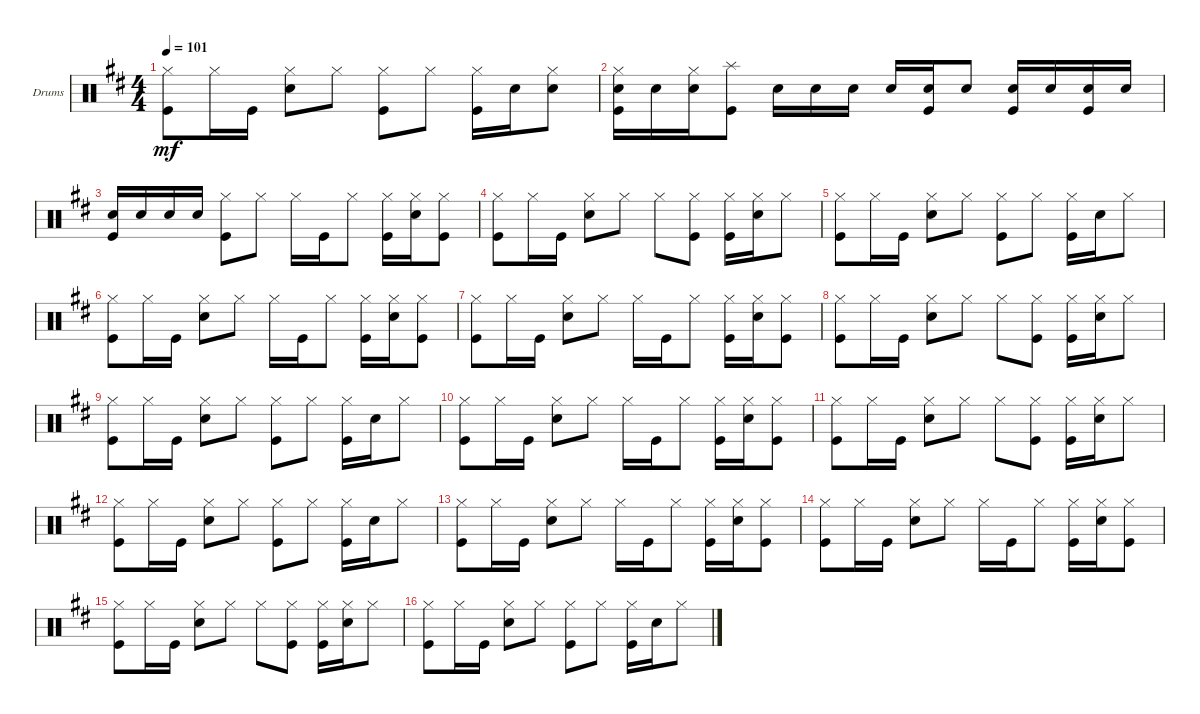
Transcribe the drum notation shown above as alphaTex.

\bracketExtendMode groupsimilarinstruments
\firstSystemTrackNameOrientation horizontal
\otherSystemsTrackNameOrientation horizontal
\track ("Drumkit" "Drums") {instrument percussion}
\staff {score}
\articulation defaults
\ts (4 4)
\tempo 101
\clef neutral
\scale
0.333333
\ks d
("Kick (hit)" "Hi-Hat (closed)").8{dy mf} "Hi-Hat (closed)".16 "Kick (hit)".16 ("Snare (hit) 2" "Hi-Hat (closed)").8 "Hi-Hat (closed)".8 ("Kick (hit)" "Hi-Hat (closed)").8 "Hi-Hat (closed)".8 ("Kick (hit)" "Hi-Hat (closed)").16 "Snare (hit) 2".16 ("Snare (hit) 2" "Hi-Hat (closed)").8 |
\scale
0.333333 ("Kick (hit)" "Snare (hit) 2" "Hi-Hat (closed)").16 "Snare (hit) 2".16 ("Snare (hit) 2" "Hi-Hat (closed)").16 ("Kick (hit)" "Splash (hit)").8 "Snare (hit) 2".16 "Snare (hit) 2".16 "Snare (hit) 2".16 "Snare (hit) 2".16 ("Kick (hit)" "Snare (hit) 2").16 "Snare (hit) 2".8 ("Kick (hit)" "Snare (hit) 2").16 "Snare (hit) 2".16 ("Kick (hit)" "Snare (hit) 2").16 "Snare (hit) 2".16 |
\scale
0.333333 ("Snare (hit) 2" "Kick (hit)").16 "Snare (hit) 2".16 "Snare (hit) 2".16 "Snare (hit) 2".16 ("Kick (hit)" "Hi-Hat (closed)").8 "Hi-Hat (closed)".8 "Hi-Hat (closed)".16 "Kick (hit)".16 "Hi-Hat (closed)".8 ("Kick (hit)" "Hi-Hat (closed)").16 ("Snare (hit) 2" "Hi-Hat (closed)").16 ("Kick (hit)" "Hi-Hat (closed)").8 |
\scale
0.333333 ("Kick (hit)" "Hi-Hat (closed)").8 "Hi-Hat (closed)".16 "Kick (hit)".16 ("Snare (hit) 2" "Hi-Hat (closed)").8 "Hi-Hat (closed)".8 "Hi-Hat (closed)".8 ("Kick (hit)" "Hi-Hat (closed)").8 ("Kick (hit)" "Hi-Hat (closed)").16 ("Snare (hit) 2" "Hi-Hat (closed)").16 "Hi-Hat (closed)".8 |
\scale
0.333333 ("Kick (hit)" "Hi-Hat (closed)").8 "Hi-Hat (closed)".16 "Kick (hit)".16 ("Snare (hit) 2" "Hi-Hat (closed)").8 "Hi-Hat (closed)".8 ("Kick (hit)" "Hi-Hat (closed)").8 "Hi-Hat (closed)".8 ("Kick (hit)" "Hi-Hat (closed)").16 "Snare (hit) 2".16 "Hi-Hat (closed)".8 |
\scale
0.333333 ("Kick (hit)" "Hi-Hat (closed)").8 "Hi-Hat (closed)".16 "Kick (hit)".16 ("Snare (hit) 2" "Hi-Hat (closed)").8 "Hi-Hat (closed)".8 "Hi-Hat (closed)".16 "Kick (hit)".16 "Hi-Hat (closed)".8 ("Kick (hit)" "Hi-Hat (closed)").16 ("Snare (hit) 2" "Hi-Hat (closed)").16 ("Kick (hit)" "Hi-Hat (closed)").8 |
\scale
0.333333 ("Kick (hit)" "Hi-Hat (closed)").8 "Hi-Hat (closed)".16 "Kick (hit)".16 ("Snare (hit) 2" "Hi-Hat (closed)").8 "Hi-Hat (closed)".8 "Hi-Hat (closed)".16 "Kick (hit)".16 "Hi-Hat (closed)".8 ("Kick (hit)" "Hi-Hat (closed)").16 ("Snare (hit) 2" "Hi-Hat (closed)").16 ("Kick (hit)" "Hi-Hat (closed)").8 |
\scale
0.333333 ("Kick (hit)" "Hi-Hat (closed)").8 "Hi-Hat (closed)".16 "Kick (hit)".16 ("Snare (hit) 2" "Hi-Hat (closed)").8 "Hi-Hat (closed)".8 "Hi-Hat (closed)".8 ("Kick (hit)" "Hi-Hat (closed)").8 ("Kick (hit)" "Hi-Hat (closed)").16 ("Snare (hit) 2" "Hi-Hat (closed)").16 "Hi-Hat (closed)".8 |
\scale
0.333333 ("Kick (hit)" "Hi-Hat (closed)").8 "Hi-Hat (closed)".16 "Kick (hit)".16 ("Snare (hit) 2" "Hi-Hat (closed)").8 "Hi-Hat (closed)".8 ("Kick (hit)" "Hi-Hat (closed)").8 "Hi-Hat (closed)".8 ("Kick (hit)" "Hi-Hat (closed)").16 "Snare (hit) 2".16 "Hi-Hat (closed)".8 |
\scale
0.333333 ("Kick (hit)" "Hi-Hat (closed)").8 "Hi-Hat (closed)".16 "Kick (hit)".16 ("Snare (hit) 2" "Hi-Hat (closed)").8 "Hi-Hat (closed)".8 "Hi-Hat (closed)".16 "Kick (hit)".16 "Hi-Hat (closed)".8 ("Kick (hit)" "Hi-Hat (closed)").16 ("Snare (hit) 2" "Hi-Hat (closed)").16 ("Kick (hit)" "Hi-Hat (closed)").8 |
\scale
0.333333 ("Kick (hit)" "Hi-Hat (closed)").8 "Hi-Hat (closed)".16 "Kick (hit)".16 ("Snare (hit) 2" "Hi-Hat (closed)").8 "Hi-Hat (closed)".8 "Hi-Hat (closed)".8 ("Kick (hit)" "Hi-Hat (closed)").8 ("Kick (hit)" "Hi-Hat (closed)").16 ("Snare (hit) 2" "Hi-Hat (closed)").16 "Hi-Hat (closed)".8 |
\scale
0.333333 ("Kick (hit)" "Hi-Hat (closed)").8 "Hi-Hat (closed)".16 "Kick (hit)".16 ("Snare (hit) 2" "Hi-Hat (closed)").8 "Hi-Hat (closed)".8 ("Kick (hit)" "Hi-Hat (closed)").8 "Hi-Hat (closed)".8 ("Kick (hit)" "Hi-Hat (closed)").16 "Snare (hit) 2".16 "Hi-Hat (closed)".8 |
\scale
0.333333 ("Kick (hit)" "Hi-Hat (closed)").8 "Hi-Hat (closed)".16 "Kick (hit)".16 ("Snare (hit) 2" "Hi-Hat (closed)").8 "Hi-Hat (closed)".8 "Hi-Hat (closed)".16 "Kick (hit)".16 "Hi-Hat (closed)".8 ("Kick (hit)" "Hi-Hat (closed)").16 ("Snare (hit) 2" "Hi-Hat (closed)").16 ("Kick (hit)" "Hi-Hat (closed)").8 |
\scale
0.333333 ("Kick (hit)" "Hi-Hat (closed)").8 "Hi-Hat (closed)".16 "Kick (hit)".16 ("Snare (hit) 2" "Hi-Hat (closed)").8 "Hi-Hat (closed)".8 "Hi-Hat (closed)".16 "Kick (hit)".16 "Hi-Hat (closed)".8 ("Kick (hit)" "Hi-Hat (closed)").16 ("Snare (hit) 2" "Hi-Hat (closed)").16 ("Kick (hit)" "Hi-Hat (closed)").8 |
\scale
0.333333 ("Kick (hit)" "Hi-Hat (closed)").8 "Hi-Hat (closed)".16 "Kick (hit)".16 ("Snare (hit) 2" "Hi-Hat (closed)").8 "Hi-Hat (closed)".8 "Hi-Hat (closed)".8 ("Kick (hit)" "Hi-Hat (closed)").8 ("Kick (hit)" "Hi-Hat (closed)").16 ("Snare (hit) 2" "Hi-Hat (closed)").16 "Hi-Hat (closed)".8 |
\scale
0.333333 ("Kick (hit)" "Hi-Hat (closed)").8 "Hi-Hat (closed)".16 "Kick (hit)".16 ("Snare (hit) 2" "Hi-Hat (closed)").8 "Hi-Hat (closed)".8 ("Kick (hit)" "Hi-Hat (closed)").8 "Hi-Hat (closed)".8 ("Kick (hit)" "Hi-Hat (closed)").16 "Snare (hit) 2".16 "Hi-Hat (closed)".8
